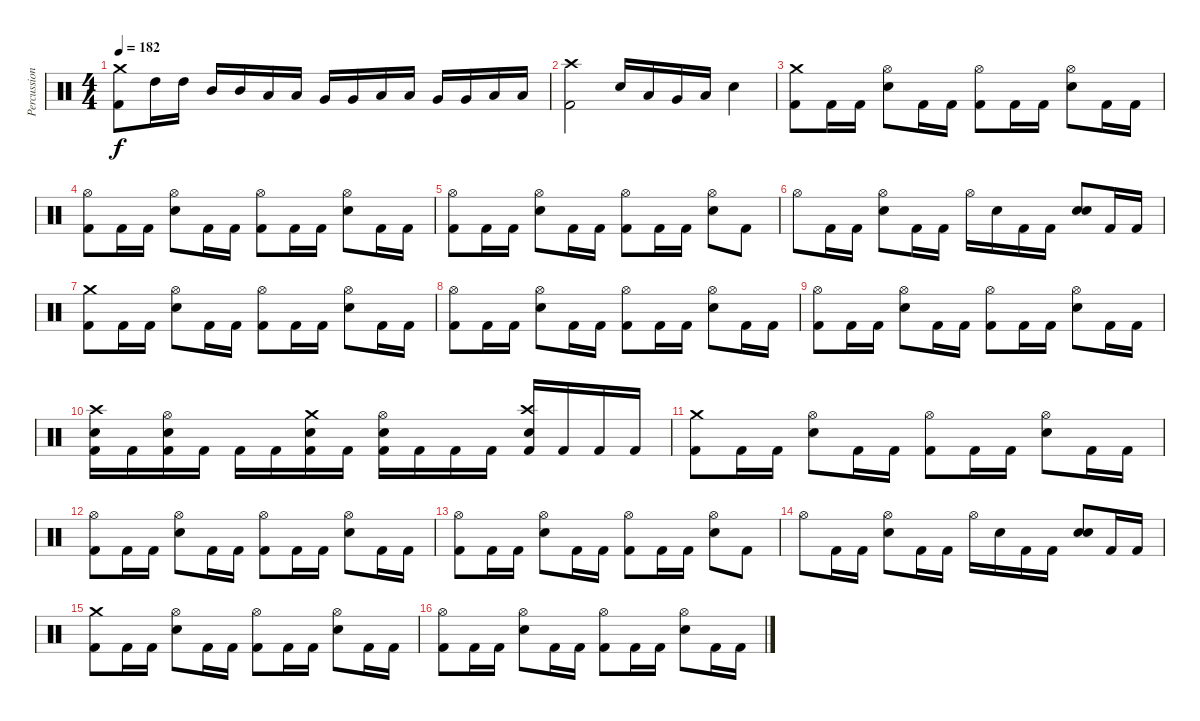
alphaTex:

\track ("Percussion" "Percussion") {instrument percussion}
\staff {score}
\articulation defaults
\ts (4 4)
\tempo 182
\clef neutral
\ks c
("Crash medium (hit)" "Kick (hit) 2").8{dy f} "High Tom (hit)".16 "High Tom (hit)".16 "Mid Tom (hit)".16 "Mid Tom (hit)".16 "Low Tom (hit)".16 "Low Tom (hit)".16 "Very Low Tom (hit)".16 "Very Low Tom (hit)".16 "Low Floor Tom (hit)".16 "Low Floor Tom (hit)".16 "Very Low Tom (hit)".16 "Very Low Tom (hit)".16 "Low Tom (hit)".16 "Low Tom (hit)".16 |
("Crash high (hit)" "Kick (hit) 2").2 "Electric Snare (hit)".16 "Low Tom (hit)".16 "Very Low Tom (hit)".16 "Low Floor Tom (hit)".16 "Electric Snare (hit)".4 |
("Crash medium (hit)" "Kick (hit) 2").8 "Kick (hit) 2".16 "Kick (hit) 2".16 ("Hi-Hat (open)" "Electric Snare (hit)").8 "Kick (hit) 2".16 "Kick (hit) 2".16 ("Hi-Hat (open)" "Kick (hit) 2").8 "Kick (hit) 2".16 "Kick (hit) 2".16 ("Hi-Hat (open)" "Electric Snare (hit)").8 "Kick (hit) 2".16 "Kick (hit) 2".16 |
("Hi-Hat (open)" "Kick (hit) 2").8 "Kick (hit) 2".16 "Kick (hit) 2".16 ("Hi-Hat (open)" "Electric Snare (hit)").8 "Kick (hit) 2".16 "Kick (hit) 2".16 ("Hi-Hat (open)" "Kick (hit) 2").8 "Kick (hit) 2".16 "Kick (hit) 2".16 ("Hi-Hat (open)" "Electric Snare (hit)").8 "Kick (hit) 2".16 "Kick (hit) 2".16 |
("Hi-Hat (open)" "Kick (hit) 2").8 "Kick (hit) 2".16 "Kick (hit) 2".16 ("Hi-Hat (open)" "Electric Snare (hit)").8 "Kick (hit) 2".16 "Kick (hit) 2".16 ("Hi-Hat (open)" "Kick (hit) 2").8 "Kick (hit) 2".16 "Kick (hit) 2".16 ("Hi-Hat (open)" "Electric Snare (hit)").8 "Kick (hit) 2".8 |
"Hi-Hat (open)".8 "Kick (hit) 2".16 "Kick (hit) 2".16 ("Hi-Hat (open)" "Electric Snare (hit)").8 "Kick (hit) 2".16 "Kick (hit) 2".16 "Hi-Hat (open)".16 "Electric Snare (hit)".16 "Kick (hit) 2".16 "Kick (hit) 2".16 ("Electric Snare (hit)" "Electric Snare (hit)").8 "Kick (hit) 2".16 "Kick (hit) 2".16 |
("Crash medium (hit)" "Kick (hit) 2").8 "Kick (hit) 2".16 "Kick (hit) 2".16 ("Hi-Hat (open)" "Electric Snare (hit)").8 "Kick (hit) 2".16 "Kick (hit) 2".16 ("Hi-Hat (open)" "Kick (hit) 2").8 "Kick (hit) 2".16 "Kick (hit) 2".16 ("Hi-Hat (open)" "Electric Snare (hit)").8 "Kick (hit) 2".16 "Kick (hit) 2".16 |
("Hi-Hat (open)" "Kick (hit) 2").8 "Kick (hit) 2".16 "Kick (hit) 2".16 ("Hi-Hat (open)" "Electric Snare (hit)").8 "Kick (hit) 2".16 "Kick (hit) 2".16 ("Hi-Hat (open)" "Kick (hit) 2").8 "Kick (hit) 2".16 "Kick (hit) 2".16 ("Hi-Hat (open)" "Electric Snare (hit)").8 "Kick (hit) 2".16 "Kick (hit) 2".16 |
("Hi-Hat (open)" "Kick (hit) 2").8 "Kick (hit) 2".16 "Kick (hit) 2".16 ("Hi-Hat (open)" "Electric Snare (hit)").8 "Kick (hit) 2".16 "Kick (hit) 2".16 ("Hi-Hat (open)" "Kick (hit) 2").8 "Kick (hit) 2".16 "Kick (hit) 2".16 ("Hi-Hat (open)" "Electric Snare (hit)").8 "Kick (hit) 2".16 "Kick (hit) 2".16 |
("Crash high (hit)" "Electric Snare (hit)" "Kick (hit) 2").16 "Kick (hit) 2".16 ("Hi-Hat (open)" "Electric Snare (hit)" "Kick (hit) 2").16 "Kick (hit) 2".16 "Kick (hit) 2".16 "Kick (hit) 2".16 ("Crash medium (hit)" "Electric Snare (hit)" "Kick (hit) 2").16 "Kick (hit) 2".16 ("Hi-Hat (open)" "Electric Snare (hit)" "Kick (hit) 2").16 "Kick (hit) 2".16 "Kick (hit) 2".16 "Kick (hit) 2".16 ("Crash high (hit)" "Electric Snare (hit)" "Kick (hit) 2").16 "Kick (hit) 2".16 "Kick (hit) 2".16 "Kick (hit) 2".16 |
("Crash medium (hit)" "Kick (hit) 2").8 "Kick (hit) 2".16 "Kick (hit) 2".16 ("Hi-Hat (open)" "Electric Snare (hit)").8 "Kick (hit) 2".16 "Kick (hit) 2".16 ("Hi-Hat (open)" "Kick (hit) 2").8 "Kick (hit) 2".16 "Kick (hit) 2".16 ("Hi-Hat (open)" "Electric Snare (hit)").8 "Kick (hit) 2".16 "Kick (hit) 2".16 |
("Hi-Hat (open)" "Kick (hit) 2").8 "Kick (hit) 2".16 "Kick (hit) 2".16 ("Hi-Hat (open)" "Electric Snare (hit)").8 "Kick (hit) 2".16 "Kick (hit) 2".16 ("Hi-Hat (open)" "Kick (hit) 2").8 "Kick (hit) 2".16 "Kick (hit) 2".16 ("Hi-Hat (open)" "Electric Snare (hit)").8 "Kick (hit) 2".16 "Kick (hit) 2".16 |
("Hi-Hat (open)" "Kick (hit) 2").8 "Kick (hit) 2".16 "Kick (hit) 2".16 ("Hi-Hat (open)" "Electric Snare (hit)").8 "Kick (hit) 2".16 "Kick (hit) 2".16 ("Hi-Hat (open)" "Kick (hit) 2").8 "Kick (hit) 2".16 "Kick (hit) 2".16 ("Hi-Hat (open)" "Electric Snare (hit)").8 "Kick (hit) 2".8 |
"Hi-Hat (open)".8 "Kick (hit) 2".16 "Kick (hit) 2".16 ("Hi-Hat (open)" "Electric Snare (hit)").8 "Kick (hit) 2".16 "Kick (hit) 2".16 "Hi-Hat (open)".16 "Electric Snare (hit)".16 "Kick (hit) 2".16 "Kick (hit) 2".16 ("Electric Snare (hit)" "Electric Snare (hit)").8 "Kick (hit) 2".16 "Kick (hit) 2".16 |
("Crash medium (hit)" "Kick (hit) 2").8 "Kick (hit) 2".16 "Kick (hit) 2".16 ("Hi-Hat (open)" "Electric Snare (hit)").8 "Kick (hit) 2".16 "Kick (hit) 2".16 ("Hi-Hat (open)" "Kick (hit) 2").8 "Kick (hit) 2".16 "Kick (hit) 2".16 ("Hi-Hat (open)" "Electric Snare (hit)").8 "Kick (hit) 2".16 "Kick (hit) 2".16 |
("Hi-Hat (open)" "Kick (hit) 2").8 "Kick (hit) 2".16 "Kick (hit) 2".16 ("Hi-Hat (open)" "Electric Snare (hit)").8 "Kick (hit) 2".16 "Kick (hit) 2".16 ("Hi-Hat (open)" "Kick (hit) 2").8 "Kick (hit) 2".16 "Kick (hit) 2".16 ("Hi-Hat (open)" "Electric Snare (hit)").8 "Kick (hit) 2".16 "Kick (hit) 2".16
